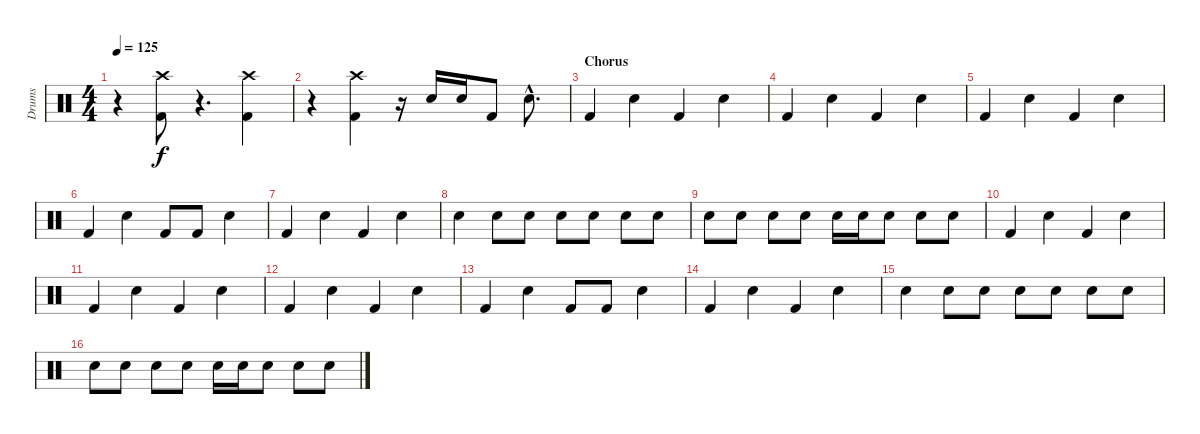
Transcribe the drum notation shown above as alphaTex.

\track ("Drums" "Drums") {instrument percussion}
\staff {score}
\articulation defaults
\ts (4 4)
\tempo 125
\clef neutral
\ks c
r.4{dy f} ("Crash high (hit)" "Kick (hit) 2").8 r.4{d} ("Crash high (hit)" "Kick (hit) 2").4 |
r.4 ("Crash high (hit)" "Kick (hit) 2").4 r.16 "Snare (hit) 2".16 "Snare (hit) 2".16 "Kick (hit) 2".8 "Snare (hit) 2"{hac}.8{d} |
\section ("" "Chorus")
"Kick (hit) 2".4 "Snare (hit) 2".4 "Kick (hit) 2".4 "Snare (hit) 2".4 |
"Kick (hit) 2".4 "Snare (hit) 2".4 "Kick (hit) 2".4 "Snare (hit) 2".4 |
"Kick (hit) 2".4 "Snare (hit) 2".4 "Kick (hit) 2".4 "Snare (hit) 2".4 |
"Kick (hit) 2".4 "Snare (hit) 2".4 "Kick (hit) 2".8 "Kick (hit) 2".8 "Snare (hit) 2".4 |
"Kick (hit) 2".4 "Snare (hit) 2".4 "Kick (hit) 2".4 "Snare (hit) 2".4 |
"Snare (hit) 2".4 "Snare (hit) 2".8 "Snare (hit) 2".8 "Snare (hit) 2".8 "Snare (hit) 2".8 "Snare (hit) 2".8 "Snare (hit) 2".8 |
"Snare (hit) 2".8 "Snare (hit) 2".8 "Snare (hit) 2".8 "Snare (hit) 2".8 "Snare (hit) 2".16 "Snare (hit) 2".16 "Snare (hit) 2".8 "Snare (hit) 2".8 "Snare (hit) 2".8 |
"Kick (hit) 2".4 "Snare (hit) 2".4 "Kick (hit) 2".4 "Snare (hit) 2".4 |
"Kick (hit) 2".4 "Snare (hit) 2".4 "Kick (hit) 2".4 "Snare (hit) 2".4 |
"Kick (hit) 2".4 "Snare (hit) 2".4 "Kick (hit) 2".4 "Snare (hit) 2".4 |
"Kick (hit) 2".4 "Snare (hit) 2".4 "Kick (hit) 2".8 "Kick (hit) 2".8 "Snare (hit) 2".4 |
"Kick (hit) 2".4 "Snare (hit) 2".4 "Kick (hit) 2".4 "Snare (hit) 2".4 |
"Snare (hit) 2".4 "Snare (hit) 2".8 "Snare (hit) 2".8 "Snare (hit) 2".8 "Snare (hit) 2".8 "Snare (hit) 2".8 "Snare (hit) 2".8 |
"Snare (hit) 2".8 "Snare (hit) 2".8 "Snare (hit) 2".8 "Snare (hit) 2".8 "Snare (hit) 2".16 "Snare (hit) 2".16 "Snare (hit) 2".8 "Snare (hit) 2".8 "Snare (hit) 2".8
